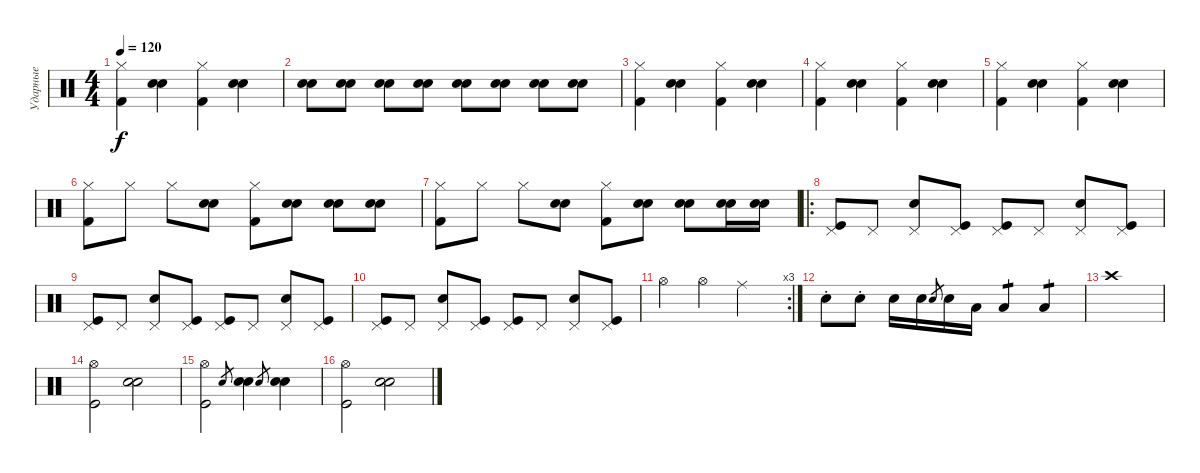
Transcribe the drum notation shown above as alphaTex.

\track ("Ударные" "Ударные") {instrument percussion}
\staff {score}
\articulation defaults
\ts (4 4)
\tempo 120
\clef neutral
\ks c
("Hi-Hat (closed)" "Kick (hit) 2").4{dy f} ("Snare (hit) 2" "Electric Snare (hit)").4 ("Hi-Hat (closed)" "Kick (hit) 2").4 ("Snare (hit) 2" "Electric Snare (hit)").4 |
("Electric Snare (hit)" "Snare (hit) 2").8 ("Electric Snare (hit)" "Snare (hit) 2").8 ("Electric Snare (hit)" "Snare (hit) 2").8 ("Electric Snare (hit)" "Snare (hit) 2").8 ("Electric Snare (hit)" "Snare (hit) 2").8 ("Electric Snare (hit)" "Snare (hit) 2").8 ("Electric Snare (hit)" "Snare (hit) 2").8 ("Electric Snare (hit)" "Snare (hit) 2").8 |
("Hi-Hat (closed)" "Kick (hit) 2").4 ("Snare (hit) 2" "Electric Snare (hit)").4 ("Hi-Hat (closed)" "Kick (hit) 2").4 ("Snare (hit) 2" "Electric Snare (hit)").4 |
("Hi-Hat (closed)" "Kick (hit) 2").4 ("Snare (hit) 2" "Electric Snare (hit)").4 ("Hi-Hat (closed)" "Kick (hit) 2").4 ("Snare (hit) 2" "Electric Snare (hit)").4 |
("Hi-Hat (closed)" "Kick (hit) 2").4 ("Snare (hit) 2" "Electric Snare (hit)").4 ("Hi-Hat (closed)" "Kick (hit) 2").4 ("Snare (hit) 2" "Electric Snare (hit)").4 |
("Hi-Hat (closed)" "Kick (hit) 2").8 "Hi-Hat (closed)".8 "Hi-Hat (closed)".8 ("Electric Snare (hit)" "Snare (hit) 2").8 ("Hi-Hat (closed)" "Kick (hit) 2").8 ("Electric Snare (hit)" "Snare (hit) 2").8 ("Electric Snare (hit)" "Snare (hit) 2").8 ("Electric Snare (hit)" "Snare (hit) 2").8 |
("Hi-Hat (closed)" "Kick (hit) 2").8 "Hi-Hat (closed)".8 "Hi-Hat (closed)".8 ("Electric Snare (hit)" "Snare (hit) 2").8 ("Hi-Hat (closed)" "Kick (hit) 2").8 ("Electric Snare (hit)" "Snare (hit) 2").8 ("Electric Snare (hit)" "Snare (hit) 2").8 ("Electric Snare (hit)" "Snare (hit) 2").16 ("Electric Snare (hit)" "Snare (hit) 2").16 |
\ro
("Kick (hit)" "Pedal Hi-Hat (hit)").8 "Pedal Hi-Hat (hit)".8 ("Pedal Hi-Hat (hit)" "Snare (hit) 2").8 ("Kick (hit)" "Pedal Hi-Hat (hit)").8 ("Kick (hit)" "Pedal Hi-Hat (hit)").8 "Pedal Hi-Hat (hit)".8 ("Pedal Hi-Hat (hit)" "Snare (hit) 2").8 ("Kick (hit)" "Pedal Hi-Hat (hit)").8 |
("Kick (hit)" "Pedal Hi-Hat (hit)").8 "Pedal Hi-Hat (hit)".8 ("Pedal Hi-Hat (hit)" "Snare (hit) 2").8 ("Kick (hit)" "Pedal Hi-Hat (hit)").8 ("Kick (hit)" "Pedal Hi-Hat (hit)").8 "Pedal Hi-Hat (hit)".8 ("Pedal Hi-Hat (hit)" "Snare (hit) 2").8 ("Kick (hit)" "Pedal Hi-Hat (hit)").8 |
("Kick (hit)" "Pedal Hi-Hat (hit)").8 "Pedal Hi-Hat (hit)".8 ("Pedal Hi-Hat (hit)" "Snare (hit) 2").8 ("Kick (hit)" "Pedal Hi-Hat (hit)").8 ("Kick (hit)" "Pedal Hi-Hat (hit)").8 "Pedal Hi-Hat (hit)".8 ("Pedal Hi-Hat (hit)" "Snare (hit) 2").8 ("Kick (hit)" "Pedal Hi-Hat (hit)").8 |
\rc 3 "Hi-Hat (open)".4 "Hi-Hat (open)".4 "Ride (middle)".2
|
"Electric Snare (hit)"{st}.8 "Snare (hit) 2"{st}.8 "Electric Snare (hit)".16 "Snare (hit) 2".16 "Snare (hit) 2".8{gr} "Snare (hit) 2".16 "Low Floor Tom (hit)".16 "Low Floor Tom (hit)".4{tp 1} "Low Floor Tom (hit)".4{tp 1} |
"Crash high (hit)".1 |
("Kick (hit)" "Hi-Hat (open)").2 ("Snare (hit) 2" "Electric Snare (hit)").2 |
("Kick (hit)" "Hi-Hat (open)").2 "Snare (hit) 2".8{gr} ("Snare (hit) 2" "Electric Snare (hit)").4 "Snare (hit) 2".8{gr} ("Snare (hit) 2" "Electric Snare (hit)").4 |
("Kick (hit)" "Hi-Hat (open)").2 ("Snare (hit) 2" "Electric Snare (hit)").2
